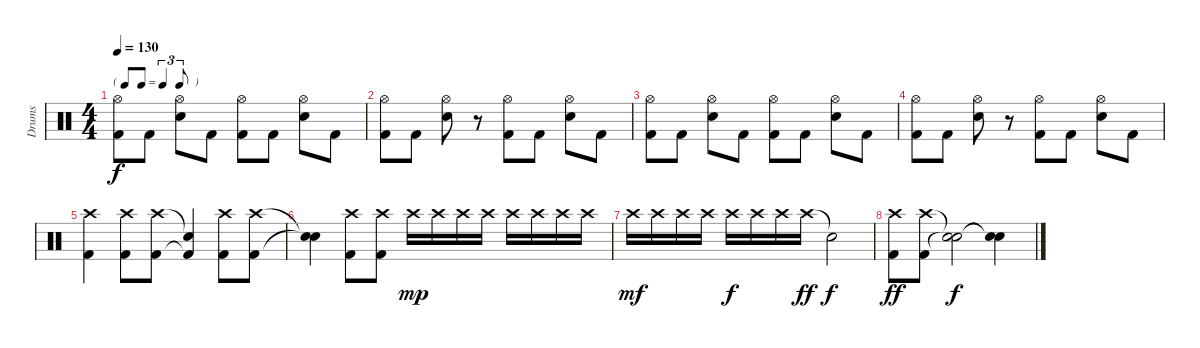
\track ("Drums" "Drums") {instrument percussion}
\staff {score}
\articulation defaults
\ts (4 4)
\tf triplet8th
\tempo 130
\clef neutral
\ks c
("Hi-Hat (open)" "Kick (hit) 2").8{dy f} "Kick (hit) 2".8 ("Hi-Hat (open)" "Electric Snare (hit)").8 "Kick (hit) 2".8 ("Hi-Hat (open)" "Kick (hit) 2").8 "Kick (hit) 2".8 ("Hi-Hat (open)" "Electric Snare (hit)").8 "Kick (hit) 2".8 |
("Hi-Hat (open)" "Kick (hit) 2").8 "Kick (hit) 2".8 ("Hi-Hat (open)" "Electric Snare (hit)").8 r.8 ("Hi-Hat (open)" "Kick (hit) 2").8 "Kick (hit) 2".8 ("Hi-Hat (open)" "Electric Snare (hit)").8 "Kick (hit) 2".8 |
("Hi-Hat (open)" "Kick (hit) 2").8 "Kick (hit) 2".8 ("Hi-Hat (open)" "Electric Snare (hit)").8 "Kick (hit) 2".8 ("Hi-Hat (open)" "Kick (hit) 2").8 "Kick (hit) 2".8 ("Hi-Hat (open)" "Electric Snare (hit)").8 "Kick (hit) 2".8 |
("Hi-Hat (open)" "Kick (hit) 2").8 "Kick (hit) 2".8 ("Hi-Hat (open)" "Electric Snare (hit)").8 r.8 ("Hi-Hat (open)" "Kick (hit) 2").8 "Kick (hit) 2".8 ("Hi-Hat (open)" "Electric Snare (hit)").8 "Kick (hit) 2".8 |
("Crash high (hit)" "Kick (hit) 2").4 ("Crash high (hit)" "Kick (hit) 2").8 ("Crash high (hit)" "Kick (hit) 2").8 ("Snare (hit)"{t} "Kick (hit) 2"{t}).4 ("Crash high (hit)" "Kick (hit) 2").8 ("Crash high (hit)" "Kick (hit) 2").8 |
("Snare (hit)"{t} "Snare (hit)"{t}).4 ("Crash high (hit)" "Kick (hit) 2").8 ("Crash high (hit)" "Kick (hit) 2").8 "Crash high (hit)".16{dy mp} "Crash high (hit)".16 "Crash high (hit)".16 "Crash high (hit)".16 "Crash high (hit)".16 "Crash high (hit)".16 "Crash high (hit)".16 "Crash high (hit)".16 |
"Crash high (hit)".16{dy mf} "Crash high (hit)".16 "Crash high (hit)".16 "Crash high (hit)".16 "Crash high (hit)".16{dy f} "Crash high (hit)".16 "Crash high (hit)".16 "Crash high (hit)".16{dy ff} "Snare (hit)"{t}.2{dy f} |
("Crash high (hit)" "Kick (hit) 2").8{dy ff} ("Crash high (hit)" "Kick (hit) 2").8 ("Snare (hit)"{t} "Snare (hit)"{t}).2{dy f} ("Snare (hit)"{t} "Snare (hit)"{t}).4
